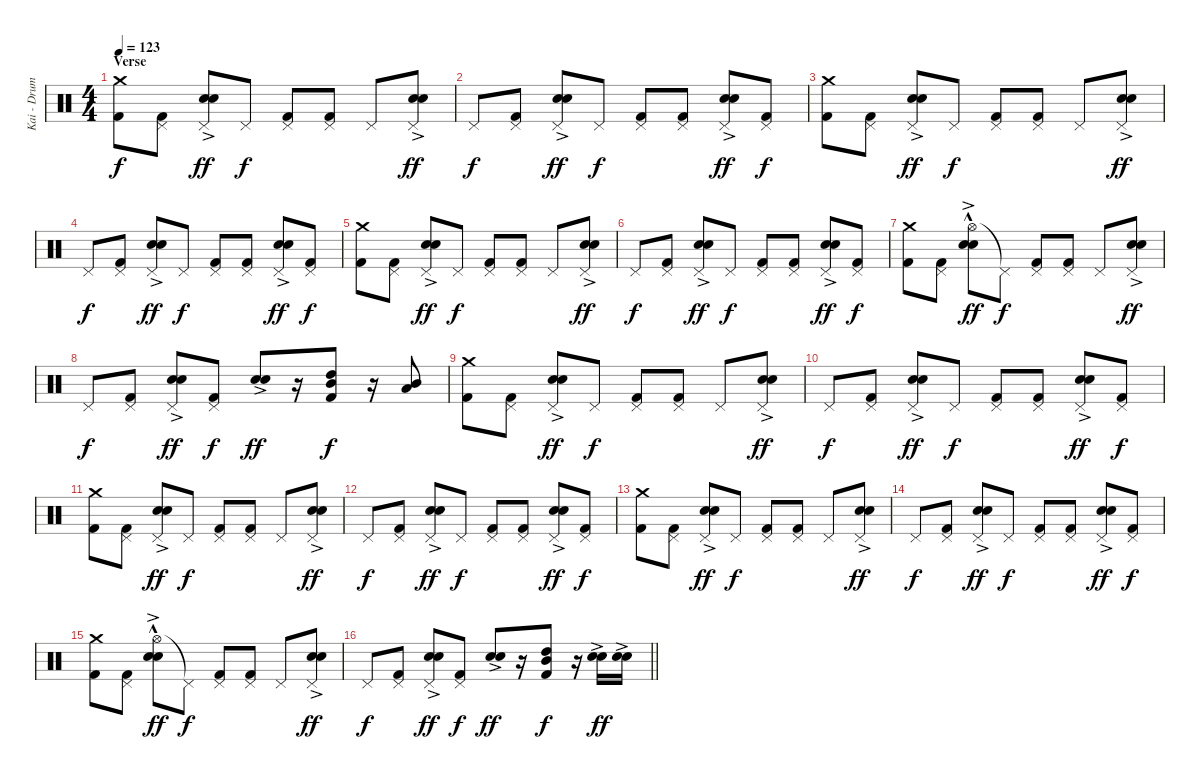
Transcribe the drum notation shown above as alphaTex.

\track ("Kai - Drums" "Kai - Drum") {instrument percussion}
\staff {score}
\articulation defaults
\ts (4 4)
\section ("" "Verse")
\tempo 123
\clef neutral
\ks c
("Crash medium (hit)" "Kick (hit) 2").8{dy f} ("Pedal Hi-Hat (hit)" "Kick (hit) 2").8 ("Pedal Hi-Hat (hit)" "Electric Snare (hit)"{ac} "Snare (hit) 2").8{dy ff} "Pedal Hi-Hat (hit)".8{dy f} ("Pedal Hi-Hat (hit)" "Kick (hit) 2").8 ("Pedal Hi-Hat (hit)" "Kick (hit) 2").8 "Pedal Hi-Hat (hit)".8 ("Pedal Hi-Hat (hit)" "Electric Snare (hit)"{ac} "Snare (hit) 2").8{dy ff} |
"Pedal Hi-Hat (hit)".8{dy f} ("Pedal Hi-Hat (hit)" "Kick (hit) 2").8 ("Pedal Hi-Hat (hit)" "Electric Snare (hit)"{ac} "Snare (hit) 2").8{dy ff} "Pedal Hi-Hat (hit)".8{dy f} ("Pedal Hi-Hat (hit)" "Kick (hit) 2").8 ("Pedal Hi-Hat (hit)" "Kick (hit) 2").8 ("Pedal Hi-Hat (hit)" "Electric Snare (hit)"{ac} "Snare (hit) 2").8{dy ff} ("Pedal Hi-Hat (hit)" "Kick (hit) 2").8{dy f} |
("Crash medium (hit)" "Kick (hit) 2").8 ("Pedal Hi-Hat (hit)" "Kick (hit) 2").8 ("Pedal Hi-Hat (hit)" "Electric Snare (hit)"{ac} "Snare (hit) 2").8{dy ff} "Pedal Hi-Hat (hit)".8{dy f} ("Pedal Hi-Hat (hit)" "Kick (hit) 2").8 ("Pedal Hi-Hat (hit)" "Kick (hit) 2").8 "Pedal Hi-Hat (hit)".8 ("Pedal Hi-Hat (hit)" "Electric Snare (hit)"{ac} "Snare (hit) 2").8{dy ff} |
"Pedal Hi-Hat (hit)".8{dy f} ("Pedal Hi-Hat (hit)" "Kick (hit) 2").8 ("Pedal Hi-Hat (hit)" "Electric Snare (hit)"{ac} "Snare (hit) 2").8{dy ff} "Pedal Hi-Hat (hit)".8{dy f} ("Pedal Hi-Hat (hit)" "Kick (hit) 2").8 ("Pedal Hi-Hat (hit)" "Kick (hit) 2").8 ("Pedal Hi-Hat (hit)" "Electric Snare (hit)"{ac} "Snare (hit) 2").8{dy ff} ("Pedal Hi-Hat (hit)" "Kick (hit) 2").8{dy f} |
("Crash medium (hit)" "Kick (hit) 2").8 ("Pedal Hi-Hat (hit)" "Kick (hit) 2").8 ("Pedal Hi-Hat (hit)" "Electric Snare (hit)"{ac} "Snare (hit) 2").8{dy ff} "Pedal Hi-Hat (hit)".8{dy f} ("Pedal Hi-Hat (hit)" "Kick (hit) 2").8 ("Pedal Hi-Hat (hit)" "Kick (hit) 2").8 "Pedal Hi-Hat (hit)".8 ("Pedal Hi-Hat (hit)" "Electric Snare (hit)"{ac} "Snare (hit) 2").8{dy ff} |
"Pedal Hi-Hat (hit)".8{dy f} ("Pedal Hi-Hat (hit)" "Kick (hit) 2").8 ("Pedal Hi-Hat (hit)" "Electric Snare (hit)"{ac} "Snare (hit) 2").8{dy ff} "Pedal Hi-Hat (hit)".8{dy f} ("Pedal Hi-Hat (hit)" "Kick (hit) 2").8 ("Pedal Hi-Hat (hit)" "Kick (hit) 2").8 ("Pedal Hi-Hat (hit)" "Electric Snare (hit)"{ac} "Snare (hit) 2").8{dy ff} ("Pedal Hi-Hat (hit)" "Kick (hit) 2").8{dy f} |
("Crash medium (hit)" "Kick (hit) 2").8 ("Pedal Hi-Hat (hit)" "Kick (hit) 2").8 ("Hi-Hat (open)"{hac} "Electric Snare (hit)"{ac} "Snare (hit) 2").8{dy ff} "Pedal Hi-Hat (hit)"{t}.8{dy f} ("Pedal Hi-Hat (hit)" "Kick (hit) 2").8 ("Pedal Hi-Hat (hit)" "Kick (hit) 2").8 "Pedal Hi-Hat (hit)".8 ("Pedal Hi-Hat (hit)" "Electric Snare (hit)"{ac} "Snare (hit) 2").8{dy ff} |
"Pedal Hi-Hat (hit)".8{dy f} ("Pedal Hi-Hat (hit)" "Kick (hit) 2").8 ("Pedal Hi-Hat (hit)" "Electric Snare (hit)"{ac} "Snare (hit) 2").8{dy ff} ("Pedal Hi-Hat (hit)" "Kick (hit) 2").8{dy f} ("Electric Snare (hit)"{ac} "Snare (hit) 2").8{dy ff} r.16 ("High Tom (hit)" "Mid Tom (hit)" "Kick (hit) 2").8{dy f} r.16 ("Mid Tom (hit)" "Low Tom (hit)").8 |
("Crash medium (hit)" "Kick (hit) 2").8 ("Pedal Hi-Hat (hit)" "Kick (hit) 2").8 ("Pedal Hi-Hat (hit)" "Electric Snare (hit)"{ac} "Snare (hit) 2").8{dy ff} "Pedal Hi-Hat (hit)".8{dy f} ("Pedal Hi-Hat (hit)" "Kick (hit) 2").8 ("Pedal Hi-Hat (hit)" "Kick (hit) 2").8 "Pedal Hi-Hat (hit)".8 ("Pedal Hi-Hat (hit)" "Electric Snare (hit)"{ac} "Snare (hit) 2").8{dy ff} |
"Pedal Hi-Hat (hit)".8{dy f} ("Pedal Hi-Hat (hit)" "Kick (hit) 2").8 ("Pedal Hi-Hat (hit)" "Electric Snare (hit)"{ac} "Snare (hit) 2").8{dy ff} "Pedal Hi-Hat (hit)".8{dy f} ("Pedal Hi-Hat (hit)" "Kick (hit) 2").8 ("Pedal Hi-Hat (hit)" "Kick (hit) 2").8 ("Pedal Hi-Hat (hit)" "Electric Snare (hit)"{ac} "Snare (hit) 2").8{dy ff} ("Pedal Hi-Hat (hit)" "Kick (hit) 2").8{dy f} |
("Crash medium (hit)" "Kick (hit) 2").8 ("Pedal Hi-Hat (hit)" "Kick (hit) 2").8 ("Pedal Hi-Hat (hit)" "Electric Snare (hit)"{ac} "Snare (hit) 2").8{dy ff} "Pedal Hi-Hat (hit)".8{dy f} ("Pedal Hi-Hat (hit)" "Kick (hit) 2").8 ("Pedal Hi-Hat (hit)" "Kick (hit) 2").8 "Pedal Hi-Hat (hit)".8 ("Pedal Hi-Hat (hit)" "Electric Snare (hit)"{ac} "Snare (hit) 2").8{dy ff} |
"Pedal Hi-Hat (hit)".8{dy f} ("Pedal Hi-Hat (hit)" "Kick (hit) 2").8 ("Pedal Hi-Hat (hit)" "Electric Snare (hit)"{ac} "Snare (hit) 2").8{dy ff} "Pedal Hi-Hat (hit)".8{dy f} ("Pedal Hi-Hat (hit)" "Kick (hit) 2").8 ("Pedal Hi-Hat (hit)" "Kick (hit) 2").8 ("Pedal Hi-Hat (hit)" "Electric Snare (hit)"{ac} "Snare (hit) 2").8{dy ff} ("Pedal Hi-Hat (hit)" "Kick (hit) 2").8{dy f} |
("Crash medium (hit)" "Kick (hit) 2").8 ("Pedal Hi-Hat (hit)" "Kick (hit) 2").8 ("Pedal Hi-Hat (hit)" "Electric Snare (hit)"{ac} "Snare (hit) 2").8{dy ff} "Pedal Hi-Hat (hit)".8{dy f} ("Pedal Hi-Hat (hit)" "Kick (hit) 2").8 ("Pedal Hi-Hat (hit)" "Kick (hit) 2").8 "Pedal Hi-Hat (hit)".8 ("Pedal Hi-Hat (hit)" "Electric Snare (hit)"{ac} "Snare (hit) 2").8{dy ff} |
"Pedal Hi-Hat (hit)".8{dy f} ("Pedal Hi-Hat (hit)" "Kick (hit) 2").8 ("Pedal Hi-Hat (hit)" "Electric Snare (hit)"{ac} "Snare (hit) 2").8{dy ff} "Pedal Hi-Hat (hit)".8{dy f} ("Pedal Hi-Hat (hit)" "Kick (hit) 2").8 ("Pedal Hi-Hat (hit)" "Kick (hit) 2").8 ("Pedal Hi-Hat (hit)" "Electric Snare (hit)"{ac} "Snare (hit) 2").8{dy ff} ("Pedal Hi-Hat (hit)" "Kick (hit) 2").8{dy f} |
("Crash medium (hit)" "Kick (hit) 2").8 ("Pedal Hi-Hat (hit)" "Kick (hit) 2").8 ("Hi-Hat (open)"{hac} "Electric Snare (hit)"{ac} "Snare (hit) 2").8{dy ff} "Pedal Hi-Hat (hit)"{t}.8{dy f} ("Pedal Hi-Hat (hit)" "Kick (hit) 2").8 ("Pedal Hi-Hat (hit)" "Kick (hit) 2").8 "Pedal Hi-Hat (hit)".8 ("Pedal Hi-Hat (hit)" "Electric Snare (hit)"{ac} "Snare (hit) 2").8{dy ff} |
\barLineRight lightlight "Pedal Hi-Hat (hit)".8{dy f}
("Pedal Hi-Hat (hit)" "Kick (hit) 2").8 ("Pedal Hi-Hat (hit)" "Electric Snare (hit)"{ac} "Snare (hit) 2").8{dy ff} ("Pedal Hi-Hat (hit)" "Kick (hit) 2").8{dy f} ("Electric Snare (hit)"{ac} "Snare (hit) 2").8{dy ff} r.16 ("High Tom (hit)" "Mid Tom (hit)" "Kick (hit) 2").8{dy f} r.16 ("Electric Snare (hit)"{ac} "Snare (hit) 2").16{dy ff} ("Electric Snare (hit)"{ac} "Snare (hit) 2").16
